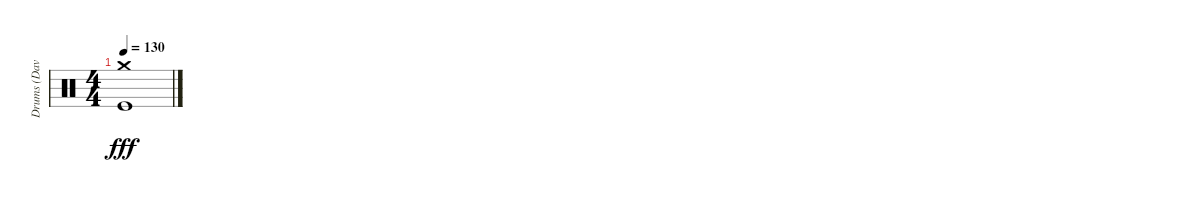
\track ("Drums (Dave Chavarri)" "Drums (Dav") {instrument percussion}
\staff {score}
\articulation defaults
\ts (4 4)
\tempo 130
\clef neutral
\ks c
("Crash medium (hit)" "Kick (hit)").1{dy fff}
